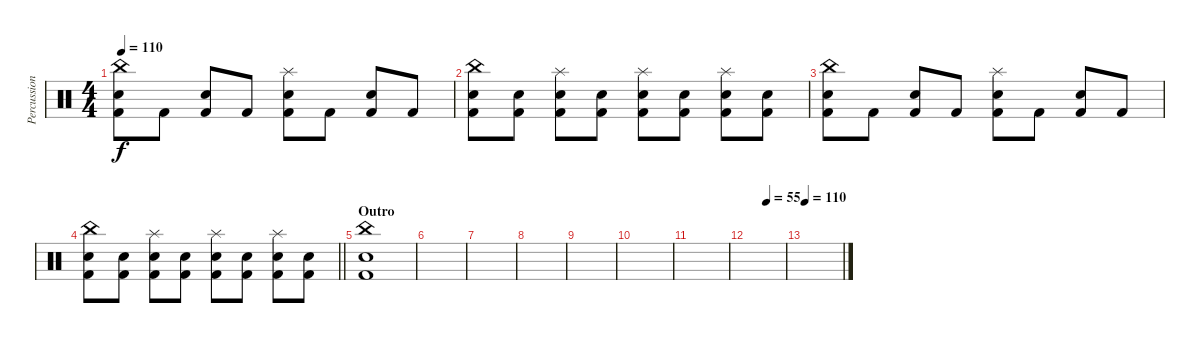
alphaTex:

\track ("Percussion" "Percussion") {instrument percussion}
\staff {score}
\articulation defaults
\ts (4 4)
\tempo 110
\clef neutral
\ks c
("China (hit)" "Electric Snare (hit)" "Kick (hit) 2").8{dy f} "Kick (hit) 2".8 ("Electric Snare (hit)" "Kick (hit) 2").8 "Kick (hit) 2".8 ("Splash (hit)" "Electric Snare (hit)" "Kick (hit) 2").8 "Kick (hit) 2".8 ("Electric Snare (hit)" "Kick (hit) 2").8 "Kick (hit) 2".8 |
("China (hit)" "Electric Snare (hit)" "Kick (hit) 2").8 ("Electric Snare (hit)" "Kick (hit) 2").8 ("Splash (hit)" "Electric Snare (hit)" "Kick (hit) 2").8 ("Electric Snare (hit)" "Kick (hit) 2").8 ("Splash (hit)" "Electric Snare (hit)" "Kick (hit) 2").8 ("Electric Snare (hit)" "Kick (hit) 2").8 ("Splash (hit)" "Electric Snare (hit)" "Kick (hit) 2").8 ("Electric Snare (hit)" "Kick (hit) 2").8 |
("China (hit)" "Electric Snare (hit)" "Kick (hit) 2").8 "Kick (hit) 2".8 ("Electric Snare (hit)" "Kick (hit) 2").8 "Kick (hit) 2".8 ("Splash (hit)" "Electric Snare (hit)" "Kick (hit) 2").8 "Kick (hit) 2".8 ("Electric Snare (hit)" "Kick (hit) 2").8 "Kick (hit) 2".8 |
\barLineRight lightlight
("China (hit)" "Electric Snare (hit)" "Kick (hit) 2").8 ("Electric Snare (hit)" "Kick (hit) 2").8 ("Splash (hit)" "Electric Snare (hit)" "Kick (hit) 2").8 ("Electric Snare (hit)" "Kick (hit) 2").8 ("Splash (hit)" "Electric Snare (hit)" "Kick (hit) 2").8 ("Electric Snare (hit)" "Kick (hit) 2").8 ("Splash (hit)" "Electric Snare (hit)" "Kick (hit) 2").8 ("Electric Snare (hit)" "Kick (hit) 2").8 |
\section ("" "Outro")
("China (hit)" "Electric Snare (hit)" "Kick (hit) 2").1 |
|
|
|
|
|
|
\tempo (55 0.5)
|
\tempo 110
